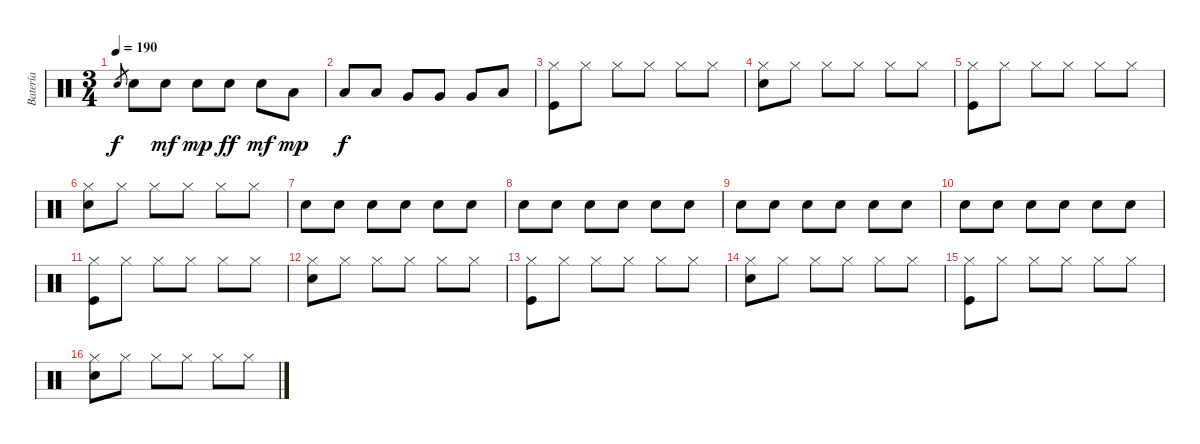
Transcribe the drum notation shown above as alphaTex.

\track ("Batería" "Batería") {instrument percussion}
\staff {score}
\articulation defaults
\ts (3 4)
\tempo 190
\clef neutral
\ks c "Electric Snare (hit)".8{gr dy f} "Electric Snare (hit)".8 "Snare (hit) 2".8{dy mf} "Snare (hit) 2".8{dy mp} "Snare (hit) 2".8{dy ff} "Snare (hit) 2".8{dy mf} "Low Tom (hit)".8{dy mp}
|
"Low Tom (hit)".8{dy f} "Low Tom (hit)".8 "Very Low Tom (hit)".8 "Very Low Tom (hit)".8 "Very Low Tom (hit)".8 "Low Floor Tom (hit)".8 |
("Hi-Hat (closed)" "Kick (hit)").8 "Hi-Hat (closed)".8 "Hi-Hat (closed)".8 "Hi-Hat (closed)".8 "Hi-Hat (closed)".8 "Hi-Hat (closed)".8 |
("Hi-Hat (closed)" "Snare (hit) 2").8 "Hi-Hat (closed)".8 "Hi-Hat (closed)".8 "Hi-Hat (closed)".8 "Hi-Hat (closed)".8 "Hi-Hat (closed)".8 |
("Hi-Hat (closed)" "Kick (hit)").8 "Hi-Hat (closed)".8 "Hi-Hat (closed)".8 "Hi-Hat (closed)".8 "Hi-Hat (closed)".8 "Hi-Hat (closed)".8 |
("Hi-Hat (closed)" "Snare (hit) 2").8 "Hi-Hat (closed)".8 "Hi-Hat (closed)".8 "Hi-Hat (closed)".8 "Hi-Hat (closed)".8 "Hi-Hat (closed)".8 |
"Snare (hit) 2".8 "Snare (hit) 2".8 "Snare (hit) 2".8 "Snare (hit) 2".8 "Snare (hit) 2".8 "Snare (hit) 2".8 |
"Snare (hit) 2".8 "Snare (hit) 2".8 "Snare (hit) 2".8 "Snare (hit) 2".8 "Snare (hit) 2".8 "Snare (hit) 2".8 |
"Snare (hit) 2".8 "Snare (hit) 2".8 "Snare (hit) 2".8 "Snare (hit) 2".8 "Snare (hit) 2".8 "Snare (hit) 2".8 |
"Snare (hit) 2".8 "Snare (hit) 2".8 "Snare (hit) 2".8 "Snare (hit) 2".8 "Snare (hit) 2".8 "Snare (hit) 2".8 |
("Hi-Hat (closed)" "Kick (hit)").8 "Hi-Hat (closed)".8 "Hi-Hat (closed)".8 "Hi-Hat (closed)".8 "Hi-Hat (closed)".8 "Hi-Hat (closed)".8 |
("Hi-Hat (closed)" "Snare (hit) 2").8 "Hi-Hat (closed)".8 "Hi-Hat (closed)".8 "Hi-Hat (closed)".8 "Hi-Hat (closed)".8 "Hi-Hat (closed)".8 |
("Hi-Hat (closed)" "Kick (hit)").8 "Hi-Hat (closed)".8 "Hi-Hat (closed)".8 "Hi-Hat (closed)".8 "Hi-Hat (closed)".8 "Hi-Hat (closed)".8 |
("Hi-Hat (closed)" "Snare (hit) 2").8 "Hi-Hat (closed)".8 "Hi-Hat (closed)".8 "Hi-Hat (closed)".8 "Hi-Hat (closed)".8 "Hi-Hat (closed)".8 |
("Hi-Hat (closed)" "Kick (hit)").8 "Hi-Hat (closed)".8 "Hi-Hat (closed)".8 "Hi-Hat (closed)".8 "Hi-Hat (closed)".8 "Hi-Hat (closed)".8 |
("Hi-Hat (closed)" "Snare (hit) 2").8 "Hi-Hat (closed)".8 "Hi-Hat (closed)".8 "Hi-Hat (closed)".8 "Hi-Hat (closed)".8 "Hi-Hat (closed)".8
